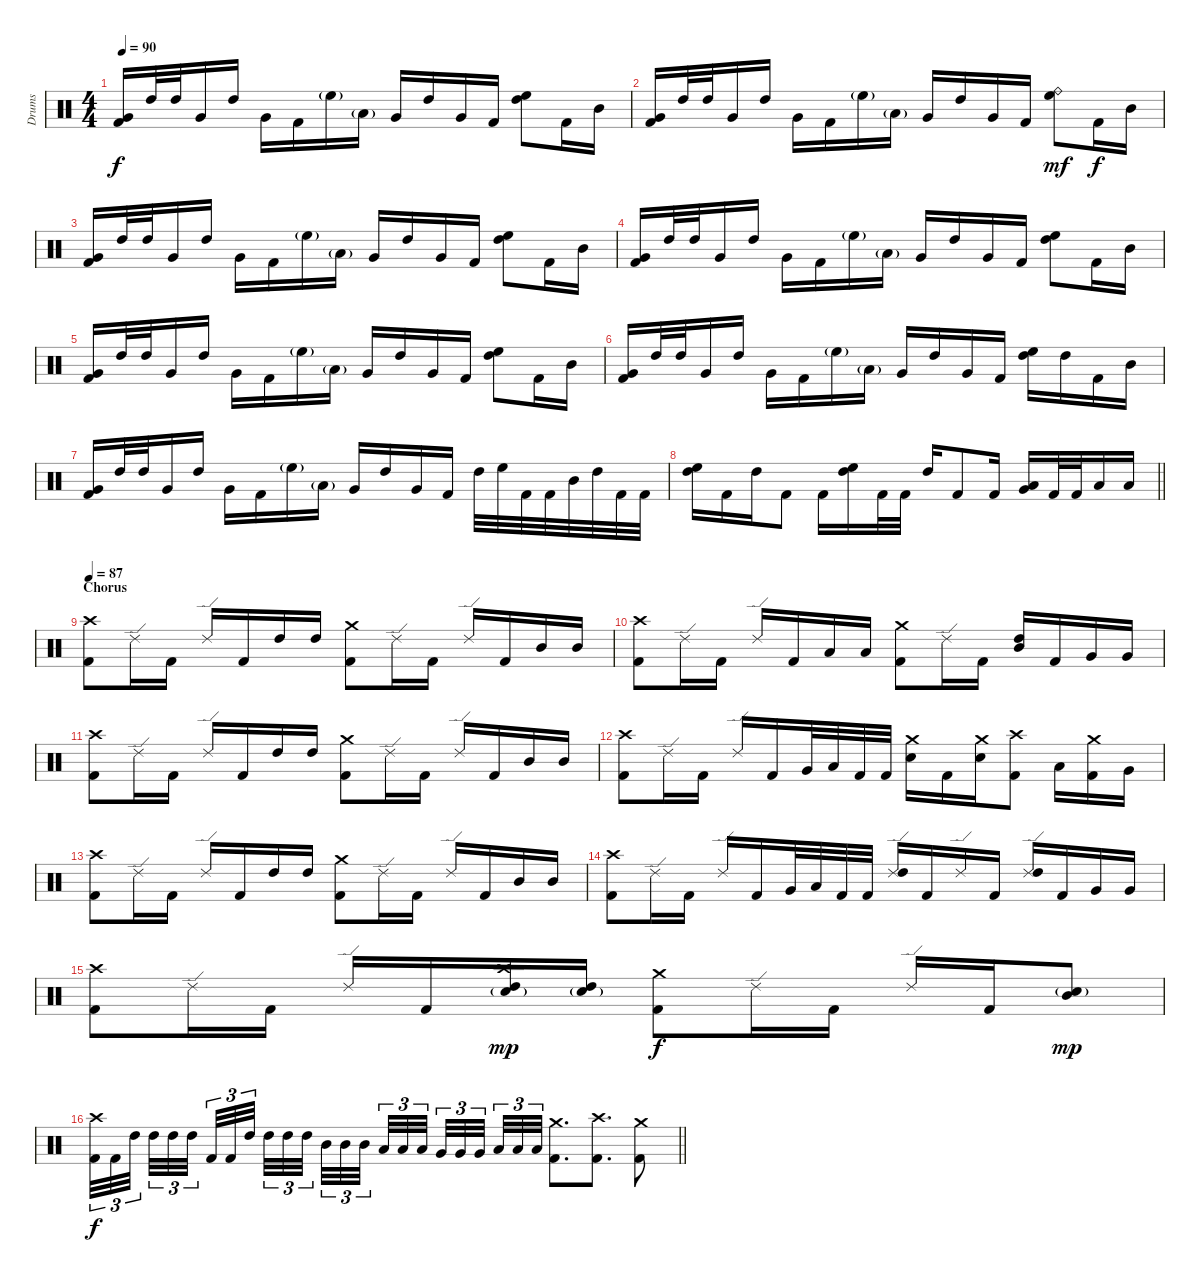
\track ("Drums" "Drums") {instrument percussion}
\staff {score}
\articulation defaults
\ts (4 4)
\section ("" "")
\tempo 90
\clef neutral
\ks c
("Very Low Tom (hit)" "Kick (hit) 2").16{dy f} "High Tom (hit)".32 "High Tom (hit)".32 "Very Low Tom (hit)".16 "High Tom (hit)".16 "Very Low Tom (hit)".16 "Kick (hit) 2".16 "High Floor Tom (hit)"{g}.16 "Low Floor Tom (hit)"{g}.16 "Very Low Tom (hit)".16 "High Tom (hit)".16 "Very Low Tom (hit)".16 "Kick (hit) 2".16 ("High Floor Tom (hit)" "High Tom (hit)").8 "Kick (hit) 2".16 "Mid Tom (hit)".16 |
("Very Low Tom (hit)" "Kick (hit) 2").16 "High Tom (hit)".32 "High Tom (hit)".32 "Very Low Tom (hit)".16 "High Tom (hit)".16 "Very Low Tom (hit)".16 "Kick (hit) 2".16 "High Floor Tom (hit)"{g}.16 "Low Floor Tom (hit)"{g}.16 "Very Low Tom (hit)".16 "High Tom (hit)".16 "Very Low Tom (hit)".16 "Kick (hit) 2".16 ("Ride (bell)" "High Floor Tom (hit)").8{dy mf} "Kick (hit) 2".16{dy f} "Mid Tom (hit)".16 |
("Very Low Tom (hit)" "Kick (hit) 2").16 "High Tom (hit)".32 "High Tom (hit)".32 "Very Low Tom (hit)".16 "High Tom (hit)".16 "Very Low Tom (hit)".16 "Kick (hit) 2".16 "High Floor Tom (hit)"{g}.16 "Low Floor Tom (hit)"{g}.16 "Very Low Tom (hit)".16 "High Tom (hit)".16 "Very Low Tom (hit)".16 "Kick (hit) 2".16 ("High Floor Tom (hit)" "High Tom (hit)").8 "Kick (hit) 2".16 "Mid Tom (hit)".16 |
("Very Low Tom (hit)" "Kick (hit) 2").16 "High Tom (hit)".32 "High Tom (hit)".32 "Very Low Tom (hit)".16 "High Tom (hit)".16 "Very Low Tom (hit)".16 "Kick (hit) 2".16 "High Floor Tom (hit)"{g}.16 "Low Floor Tom (hit)"{g}.16 "Very Low Tom (hit)".16 "High Tom (hit)".16 "Very Low Tom (hit)".16 "Kick (hit) 2".16 ("High Floor Tom (hit)" "High Tom (hit)").8 "Kick (hit) 2".16 "Mid Tom (hit)".16 |
("Very Low Tom (hit)" "Kick (hit) 2").16 "High Tom (hit)".32 "High Tom (hit)".32 "Very Low Tom (hit)".16 "High Tom (hit)".16 "Very Low Tom (hit)".16 "Kick (hit) 2".16 "High Floor Tom (hit)"{g}.16 "Low Floor Tom (hit)"{g}.16 "Very Low Tom (hit)".16 "High Tom (hit)".16 "Very Low Tom (hit)".16 "Kick (hit) 2".16 ("High Floor Tom (hit)" "High Tom (hit)").8 "Kick (hit) 2".16 "Mid Tom (hit)".16 |
("Very Low Tom (hit)" "Kick (hit) 2").16 "High Tom (hit)".32 "High Tom (hit)".32 "Very Low Tom (hit)".16 "High Tom (hit)".16 "Very Low Tom (hit)".16 "Kick (hit) 2".16 "High Floor Tom (hit)"{g}.16 "Low Floor Tom (hit)"{g}.16 "Very Low Tom (hit)".16 "High Tom (hit)".16 "Very Low Tom (hit)".16 "Kick (hit) 2".16 ("High Floor Tom (hit)" "High Tom (hit)").16 "High Tom (hit)".16 "Kick (hit) 2".16 "Mid Tom (hit)".16 |
("Very Low Tom (hit)" "Kick (hit) 2").16 "High Tom (hit)".32 "High Tom (hit)".32 "Very Low Tom (hit)".16 "High Tom (hit)".16 "Very Low Tom (hit)".16 "Kick (hit) 2".16 "High Floor Tom (hit)"{g}.16 "Low Floor Tom (hit)"{g}.16 "Very Low Tom (hit)".16 "High Tom (hit)".16 "Very Low Tom (hit)".16 "Kick (hit) 2".16 "High Tom (hit)".32 "High Floor Tom (hit)".32 "Kick (hit) 2".32 "Kick (hit) 2".32 "Mid Tom (hit)".32 "High Tom (hit)".32 "Kick (hit) 2".32 "Kick (hit) 2".32 |
\barLineRight lightlight
("High Floor Tom (hit)" "High Tom (hit)").16 "Kick (hit) 2".16 "High Tom (hit)".16 "Kick (hit) 2".8 "Kick (hit) 2".16 ("High Floor Tom (hit)" "High Tom (hit)").16 "Kick (hit) 2".32 "Kick (hit) 2".32 "High Tom (hit)".16 "Kick (hit) 2".8 "Kick (hit) 2".16 ("Low Tom (hit)" "Very Low Tom (hit)").16 "Kick (hit) 2".32 "Kick (hit) 2".32 "Low Floor Tom (hit)".16 "Low Floor Tom (hit)".16 |
\section ("" "Chorus")
\tempo 87
("Crash high (hit)" "Kick (hit) 2").8 "Ride (edge) 2".16 "Kick (hit) 2".16 "Ride (edge) 2".16 "Kick (hit) 2".16 "High Tom (hit)".16 "High Tom (hit)".16 ("Crash medium (hit)" "Kick (hit) 2").8 "Ride (edge) 2".16 "Kick (hit) 2".16 "Ride (edge) 2".16 "Kick (hit) 2".16 "Mid Tom (hit)".16 "Mid Tom (hit)".16 |
("Crash high (hit)" "Kick (hit) 2").8 "Ride (edge) 2".16 "Kick (hit) 2".16 "Ride (edge) 2".16 "Kick (hit) 2".16 "Low Tom (hit)".16 "Low Tom (hit)".16 ("Crash medium (hit)" "Kick (hit) 2").8 "Ride (edge) 2".16 "Kick (hit) 2".16 ("High Tom (hit)" "Mid Tom (hit)").16 "Kick (hit) 2".16 "Very Low Tom (hit)".16 "Very Low Tom (hit)".16 |
("Crash high (hit)" "Kick (hit) 2").8 "Ride (edge) 2".16 "Kick (hit) 2".16 "Ride (edge) 2".16 "Kick (hit) 2".16 "High Tom (hit)".16 "High Tom (hit)".16 ("Crash medium (hit)" "Kick (hit) 2").8 "Ride (edge) 2".16 "Kick (hit) 2".16 "Ride (edge) 2".16 "Kick (hit) 2".16 "Mid Tom (hit)".16 "Mid Tom (hit)".16 |
("Crash high (hit)" "Kick (hit) 2").8 "Ride (edge) 2".16 "Kick (hit) 2".16 "Ride (edge) 2".16 "Kick (hit) 2".16 "Very Low Tom (hit)".32 "Low Tom (hit)".32 "Kick (hit) 2".32 "Kick (hit) 2".32 ("Crash medium (hit)" "Snare (hit) 2").16 "Kick (hit) 2".16 ("Crash medium (hit)" "Snare (hit) 2").16 ("Crash high (hit)" "Kick (hit) 2").8 "Low Tom (hit)".16 ("Crash medium (hit)" "Kick (hit) 2").16 "Very Low Tom (hit)".16 |
("Crash high (hit)" "Kick (hit) 2").8 "Ride (edge) 2".16 "Kick (hit) 2".16 "Ride (edge) 2".16 "Kick (hit) 2".16 "High Tom (hit)".16 "High Tom (hit)".16 ("Crash medium (hit)" "Kick (hit) 2").8 "Ride (edge) 2".16 "Kick (hit) 2".16 "Ride (edge) 2".16 "Kick (hit) 2".16 "Mid Tom (hit)".16 "Mid Tom (hit)".16 |
("Crash high (hit)" "Kick (hit) 2").8 "Ride (edge) 2".16 "Kick (hit) 2".16 "Ride (edge) 2".16 "Kick (hit) 2".16 "Very Low Tom (hit)".32 "Low Tom (hit)".32 "Kick (hit) 2".32 "Kick (hit) 2".32 ("Ride (edge) 2" "High Tom (hit)").16 "Kick (hit) 2".16 "Ride (edge) 2".16 "Kick (hit) 2".16 ("Ride (edge) 2" "High Tom (hit)").16 "Kick (hit) 2".16 "Very Low Tom (hit)".16 "Very Low Tom (hit)".16 |
("Crash high (hit)" "Kick (hit) 2").8 "Ride (edge) 2".16 "Kick (hit) 2".16 "Ride (edge) 2".16 "Kick (hit) 2".16 ("Crash high (hit)" "High Tom (hit)" "Snare (hit) 2"{g}).16{dy mp} ("High Tom (hit)" "Snare (hit) 2"{g}).16 ("Crash medium (hit)" "Kick (hit) 2").8{dy f} "Ride (edge) 2".16 "Kick (hit) 2".16 "Ride (edge) 2".16 "Kick (hit) 2".16 ("Mid Tom (hit)" "Snare (hit) 2"{g}).8{dy mp} |
\barLineRight lightlight
("Crash high (hit)" "Kick (hit) 2").32{tu (3 2) dy f} "Kick (hit) 2".32{tu (3 2)} "High Tom (hit)".32{tu (3 2) beam splitsecondary} "High Tom (hit)".32{tu (3 2)} "High Tom (hit)".32{tu (3 2)} "High Tom (hit)".32{tu (3 2) beam splitsecondary} "Kick (hit) 2".32{tu (3 2)} "Kick (hit) 2".32{tu (3 2)} "High Tom (hit)".32{tu (3 2) beam splitsecondary} "High Tom (hit)".32{tu (3 2)} "High Tom (hit)".32{tu (3 2)} "High Tom (hit)".32{tu (3 2)} "Mid Tom (hit)".32{tu (3 2)} "Mid Tom (hit)".32{tu (3 2)} "Mid Tom (hit)".32{tu (3 2) beam splitsecondary} "Low Tom (hit)".32{tu (3 2)} "Low Tom (hit)".32{tu (3 2)} "Low Tom (hit)".32{tu (3 2) beam splitsecondary} "Very Low Tom (hit)".32{tu (3 2)} "Very Low Tom (hit)".32{tu (3 2)} "Very Low Tom (hit)".32{tu (3 2) beam splitsecondary} "Low Floor Tom (hit)".32{tu (3 2)} "Low Floor Tom (hit)".32{tu (3 2)} "Low Floor Tom (hit)".32{tu (3 2)} ("Crash medium (hit)" "Kick (hit) 2").8{d} ("Crash high (hit)" "Kick (hit) 2").8{d} ("Crash medium (hit)" "Kick (hit) 2").8
